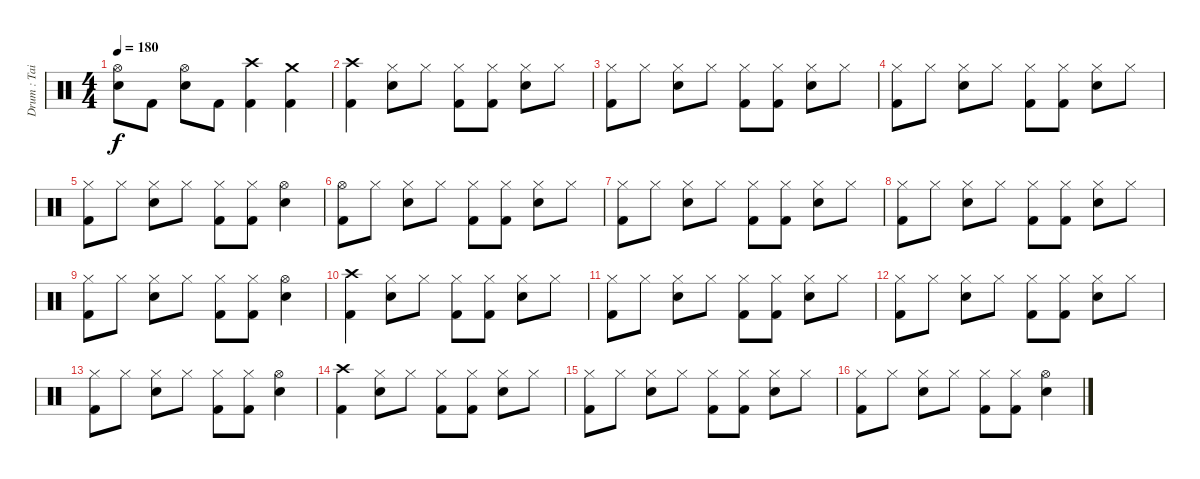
\track ("Drum : Tainaka Ritsu" "Drum : Tai") {instrument percussion}
\staff {score}
\articulation defaults
\ts (4 4)
\tempo 180
\clef neutral
\ks c
("Hi-Hat (open)" "Snare (hit) 2").8{dy f} "Kick (hit) 2".8 ("Hi-Hat (open)" "Snare (hit) 2").8 "Kick (hit) 2".8 ("Crash high (hit)" "Kick (hit) 2").4 ("Crash medium (hit)" "Kick (hit) 2").4 |
("Crash high (hit)" "Kick (hit) 2").4 ("Hi-Hat (closed)" "Snare (hit) 2").8 "Hi-Hat (closed)".8 ("Hi-Hat (closed)" "Kick (hit) 2").8 ("Hi-Hat (closed)" "Kick (hit) 2").8 ("Hi-Hat (closed)" "Snare (hit) 2").8 "Hi-Hat (closed)".8 |
("Hi-Hat (closed)" "Kick (hit) 2").8 "Hi-Hat (closed)".8 ("Hi-Hat (closed)" "Snare (hit) 2").8 "Hi-Hat (closed)".8 ("Hi-Hat (closed)" "Kick (hit) 2").8 ("Hi-Hat (closed)" "Kick (hit) 2").8 ("Hi-Hat (closed)" "Snare (hit) 2").8 "Hi-Hat (closed)".8 |
("Hi-Hat (closed)" "Kick (hit) 2").8 "Hi-Hat (closed)".8 ("Hi-Hat (closed)" "Snare (hit) 2").8 "Hi-Hat (closed)".8 ("Hi-Hat (closed)" "Kick (hit) 2").8 ("Hi-Hat (closed)" "Kick (hit) 2").8 ("Hi-Hat (closed)" "Snare (hit) 2").8 "Hi-Hat (closed)".8 |
("Hi-Hat (closed)" "Kick (hit) 2").8 "Hi-Hat (closed)".8 ("Hi-Hat (closed)" "Snare (hit) 2").8 "Hi-Hat (closed)".8 ("Hi-Hat (closed)" "Kick (hit) 2").8 ("Hi-Hat (closed)" "Kick (hit) 2").8 ("Hi-Hat (open)" "Snare (hit) 2").4 |
("Hi-Hat (open)" "Kick (hit) 2").8 "Hi-Hat (closed)".8 ("Hi-Hat (closed)" "Snare (hit) 2").8 "Hi-Hat (closed)".8 ("Hi-Hat (closed)" "Kick (hit) 2").8 ("Hi-Hat (closed)" "Kick (hit) 2").8 ("Hi-Hat (closed)" "Snare (hit) 2").8 "Hi-Hat (closed)".8 |
("Hi-Hat (closed)" "Kick (hit) 2").8 "Hi-Hat (closed)".8 ("Hi-Hat (closed)" "Snare (hit) 2").8 "Hi-Hat (closed)".8 ("Hi-Hat (closed)" "Kick (hit) 2").8 ("Hi-Hat (closed)" "Kick (hit) 2").8 ("Hi-Hat (closed)" "Snare (hit) 2").8 "Hi-Hat (closed)".8 |
("Hi-Hat (closed)" "Kick (hit) 2").8 "Hi-Hat (closed)".8 ("Hi-Hat (closed)" "Snare (hit) 2").8 "Hi-Hat (closed)".8 ("Hi-Hat (closed)" "Kick (hit) 2").8 ("Hi-Hat (closed)" "Kick (hit) 2").8 ("Hi-Hat (closed)" "Snare (hit) 2").8 "Hi-Hat (closed)".8 |
("Hi-Hat (closed)" "Kick (hit) 2").8 "Hi-Hat (closed)".8 ("Hi-Hat (closed)" "Snare (hit) 2").8 "Hi-Hat (closed)".8 ("Hi-Hat (closed)" "Kick (hit) 2").8 ("Hi-Hat (closed)" "Kick (hit) 2").8 ("Hi-Hat (open)" "Snare (hit) 2").4 |
("Crash high (hit)" "Kick (hit) 2").4 ("Hi-Hat (closed)" "Snare (hit) 2").8 "Hi-Hat (closed)".8 ("Hi-Hat (closed)" "Kick (hit) 2").8 ("Hi-Hat (closed)" "Kick (hit) 2").8 ("Hi-Hat (closed)" "Snare (hit) 2").8 "Hi-Hat (closed)".8 |
("Hi-Hat (closed)" "Kick (hit) 2").8 "Hi-Hat (closed)".8 ("Hi-Hat (closed)" "Snare (hit) 2").8 "Hi-Hat (closed)".8 ("Hi-Hat (closed)" "Kick (hit) 2").8 ("Hi-Hat (closed)" "Kick (hit) 2").8 ("Hi-Hat (closed)" "Snare (hit) 2").8 "Hi-Hat (closed)".8 |
("Hi-Hat (closed)" "Kick (hit) 2").8 "Hi-Hat (closed)".8 ("Hi-Hat (closed)" "Snare (hit) 2").8 "Hi-Hat (closed)".8 ("Hi-Hat (closed)" "Kick (hit) 2").8 ("Hi-Hat (closed)" "Kick (hit) 2").8 ("Hi-Hat (closed)" "Snare (hit) 2").8 "Hi-Hat (closed)".8 |
("Hi-Hat (closed)" "Kick (hit) 2").8 "Hi-Hat (closed)".8 ("Hi-Hat (closed)" "Snare (hit) 2").8 "Hi-Hat (closed)".8 ("Hi-Hat (closed)" "Kick (hit) 2").8 ("Hi-Hat (closed)" "Kick (hit) 2").8 ("Hi-Hat (open)" "Snare (hit) 2").4 |
("Crash high (hit)" "Kick (hit) 2").4 ("Hi-Hat (closed)" "Snare (hit) 2").8 "Hi-Hat (closed)".8 ("Hi-Hat (closed)" "Kick (hit) 2").8 ("Hi-Hat (closed)" "Kick (hit) 2").8 ("Hi-Hat (closed)" "Snare (hit) 2").8 "Hi-Hat (closed)".8 |
("Hi-Hat (closed)" "Kick (hit) 2").8 "Hi-Hat (closed)".8 ("Hi-Hat (closed)" "Snare (hit) 2").8 "Hi-Hat (closed)".8 ("Hi-Hat (closed)" "Kick (hit) 2").8 ("Hi-Hat (closed)" "Kick (hit) 2").8 ("Hi-Hat (closed)" "Snare (hit) 2").8 "Hi-Hat (closed)".8 |
("Hi-Hat (closed)" "Kick (hit) 2").8 "Hi-Hat (closed)".8 ("Hi-Hat (closed)" "Snare (hit) 2").8 "Hi-Hat (closed)".8 ("Hi-Hat (closed)" "Kick (hit) 2").8 ("Hi-Hat (closed)" "Kick (hit) 2").8 ("Hi-Hat (open)" "Snare (hit) 2").4
